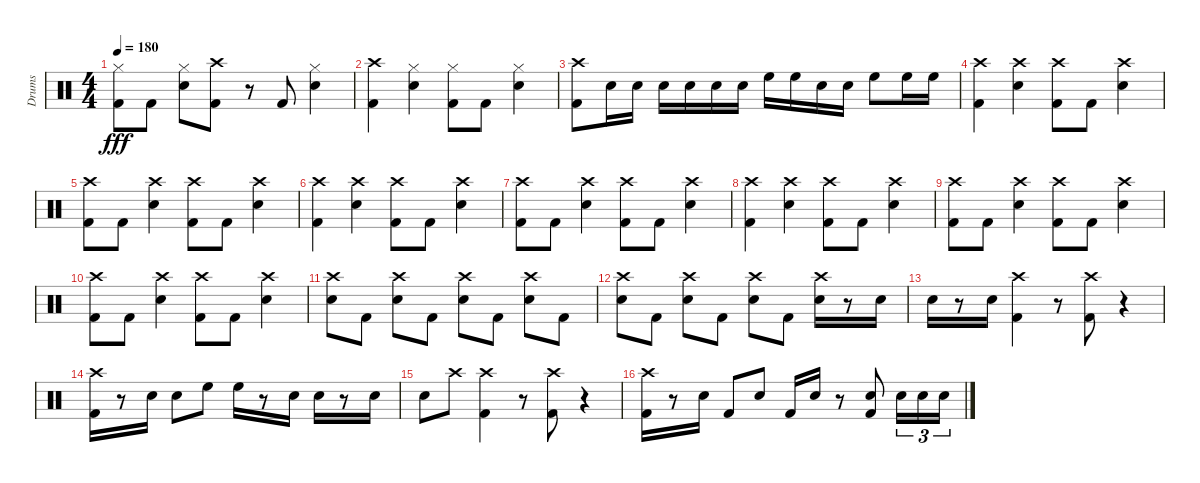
\track ("Drums" "Drums") {instrument percussion}
\staff {score}
\articulation defaults
\ts (4 4)
\tempo 180
\clef neutral
\ks c
("Kick (hit) 2" "Hi-Hat (closed)").8{dy fff} "Kick (hit) 2".8 ("Snare (hit) 2" "Hi-Hat (closed)").8 ("Crash high (hit)" "Kick (hit) 2").8 r.8 "Kick (hit) 2".8 ("Snare (hit) 2" "Hi-Hat (closed)").4 |
("Crash high (hit)" "Kick (hit) 2").4 ("Hi-Hat (closed)" "Snare (hit) 2").4 ("Hi-Hat (closed)" "Kick (hit) 2").8 "Kick (hit) 2".8 ("Snare (hit) 2" "Hi-Hat (closed)").4 |
("Crash high (hit)" "Kick (hit) 2").8 "Snare (hit) 2".16 "Snare (hit) 2".16 "Snare (hit) 2".16 "Snare (hit) 2".16 "Snare (hit) 2".16 "Snare (hit) 2".16 "High Floor Tom (hit)".16 "High Floor Tom (hit)".16 "Snare (hit) 2".16 "Snare (hit) 2".16 "High Floor Tom (hit)".8 "High Floor Tom (hit)".16 "High Floor Tom (hit)".16 |
("Kick (hit) 2" "Crash high (hit)").4 ("Crash high (hit)" "Snare (hit) 2").4 ("Crash high (hit)" "Kick (hit) 2").8 "Kick (hit) 2".8 ("Crash high (hit)" "Snare (hit) 2").4 |
("Crash high (hit)" "Kick (hit) 2").8 "Kick (hit) 2".8 ("Crash high (hit)" "Snare (hit) 2").4 ("Crash high (hit)" "Kick (hit) 2").8 "Kick (hit) 2".8 ("Crash high (hit)" "Snare (hit) 2").4 |
("Kick (hit) 2" "Crash high (hit)").4 ("Crash high (hit)" "Snare (hit) 2").4 ("Crash high (hit)" "Kick (hit) 2").8 "Kick (hit) 2".8 ("Crash high (hit)" "Snare (hit) 2").4 |
("Crash high (hit)" "Kick (hit) 2").8 "Kick (hit) 2".8 ("Crash high (hit)" "Snare (hit) 2").4 ("Crash high (hit)" "Kick (hit) 2").8 "Kick (hit) 2".8 ("Crash high (hit)" "Snare (hit) 2").4 |
("Kick (hit) 2" "Crash high (hit)").4 ("Crash high (hit)" "Snare (hit) 2").4 ("Crash high (hit)" "Kick (hit) 2").8 "Kick (hit) 2".8 ("Crash high (hit)" "Snare (hit) 2").4 |
("Crash high (hit)" "Kick (hit) 2").8 "Kick (hit) 2".8 ("Crash high (hit)" "Snare (hit) 2").4 ("Crash high (hit)" "Kick (hit) 2").8 "Kick (hit) 2".8 ("Crash high (hit)" "Snare (hit) 2").4 |
("Kick (hit) 2" "Crash high (hit)").8 "Kick (hit) 2".8 ("Crash high (hit)" "Snare (hit) 2").4 ("Crash high (hit)" "Kick (hit) 2").8 "Kick (hit) 2".8 ("Crash high (hit)" "Snare (hit) 2").4 |
("Crash high (hit)" "Snare (hit) 2").8 "Kick (hit) 2".8 ("Crash high (hit)" "Snare (hit) 2").8 "Kick (hit) 2".8 ("Crash high (hit)" "Snare (hit) 2").8 "Kick (hit) 2".8 ("Crash high (hit)" "Snare (hit) 2").8 "Kick (hit) 2".8 |
("Snare (hit) 2" "Crash high (hit)").8 "Kick (hit) 2".8 ("Snare (hit) 2" "Crash high (hit)").8 "Kick (hit) 2".8 ("Snare (hit) 2" "Crash high (hit)").8 "Kick (hit) 2".8 ("Snare (hit) 2" "Crash high (hit)").16 r.8 "Snare (hit) 2".16 |
"Snare (hit) 2".16 r.8 "Snare (hit) 2".16 ("Crash high (hit)" "Kick (hit) 2").4 r.8 ("Kick (hit) 2" "Crash high (hit)").8 r.4 |
("Crash high (hit)" "Kick (hit) 2").16 r.8 "Snare (hit) 2".16 "Snare (hit) 2".8 "High Floor Tom (hit)".8 "High Floor Tom (hit)".16 r.8 "Snare (hit) 2".16 "Snare (hit) 2".16 r.8 "Snare (hit) 2".16 |
"Snare (hit) 2".8 "Crash high (hit)".8 ("Crash high (hit)" "Kick (hit) 2").4 r.8 ("Crash high (hit)" "Kick (hit) 2").8 r.4 |
("Kick (hit) 2" "Crash high (hit)").16 r.8 "Snare (hit) 2".16 "Kick (hit) 2".8 "Snare (hit) 2".8 "Kick (hit) 2".16 "Snare (hit) 2".16 r.8 ("Snare (hit) 2" "Kick (hit) 2").8 "Snare (hit) 2".16{tu (3 2)} "Snare (hit) 2".16{tu (3 2)} "Snare (hit) 2".16{tu (3 2)}
